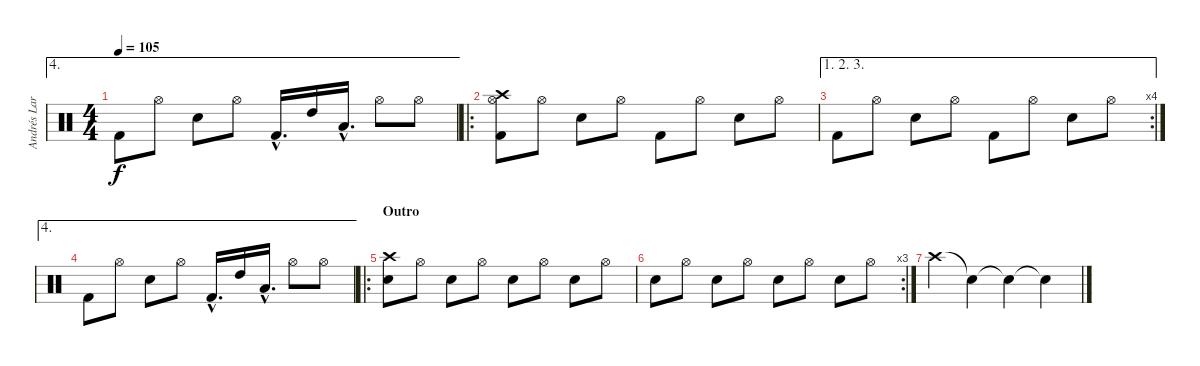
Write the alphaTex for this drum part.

\track ("Andrés Larraín (batería)" "Andrés Lar") {instrument percussion}
\staff {score}
\articulation defaults
\ae 4
\ts (4 4)
\tempo 105
\clef neutral
\ks c "Kick (hit) 2".8{dy f} "Hi-Hat (open)".8 "Snare (hit) 2".8 "Hi-Hat (open)".8 "Kick (hit) 2"{hac}.16{d} "High Tom (hit)".16 "Low Tom (hit)"{hac}.16{d} "Hi-Hat (open)".8 "Hi-Hat (open)".8
|
\ro
("Crash high (hit)" "Kick (hit) 2" "Hi-Hat (open)").8 "Hi-Hat (open)".8 "Snare (hit) 2".8 "Hi-Hat (open)".8 "Kick (hit) 2".8 "Hi-Hat (open)".8 "Snare (hit) 2".8 "Hi-Hat (open)".8 |
\ae (1 2 3)
\rc 4 "Kick (hit) 2".8 "Hi-Hat (open)".8 "Snare (hit) 2".8 "Hi-Hat (open)".8 "Kick (hit) 2".8 "Hi-Hat (open)".8 "Snare (hit) 2".8 "Hi-Hat (open)".8
|
\ae 4 "Kick (hit) 2".8 "Hi-Hat (open)".8 "Snare (hit) 2".8 "Hi-Hat (open)".8 "Kick (hit) 2"{hac}.16{d} "High Tom (hit)".16 "Low Tom (hit)"{hac}.16{d} "Hi-Hat (open)".8 "Hi-Hat (open)".8
|
\ro
\section ("" "Outro")
("Crash high (hit)" "Snare (hit) 2").8 "Hi-Hat (open)".8 "Snare (hit) 2".8 "Hi-Hat (open)".8 "Snare (hit) 2".8 "Hi-Hat (open)".8 "Snare (hit) 2".8 "Hi-Hat (open)".8 |
\rc 3 "Snare (hit) 2".8 "Hi-Hat (open)".8 "Snare (hit) 2".8 "Hi-Hat (open)".8 "Snare (hit) 2".8 "Hi-Hat (open)".8 "Snare (hit) 2".8 "Hi-Hat (open)".8
|
"Crash high (hit)".4 "Snare (hit)"{t}.4 "Snare (hit)"{t}.4 "Snare (hit)"{t}.4
